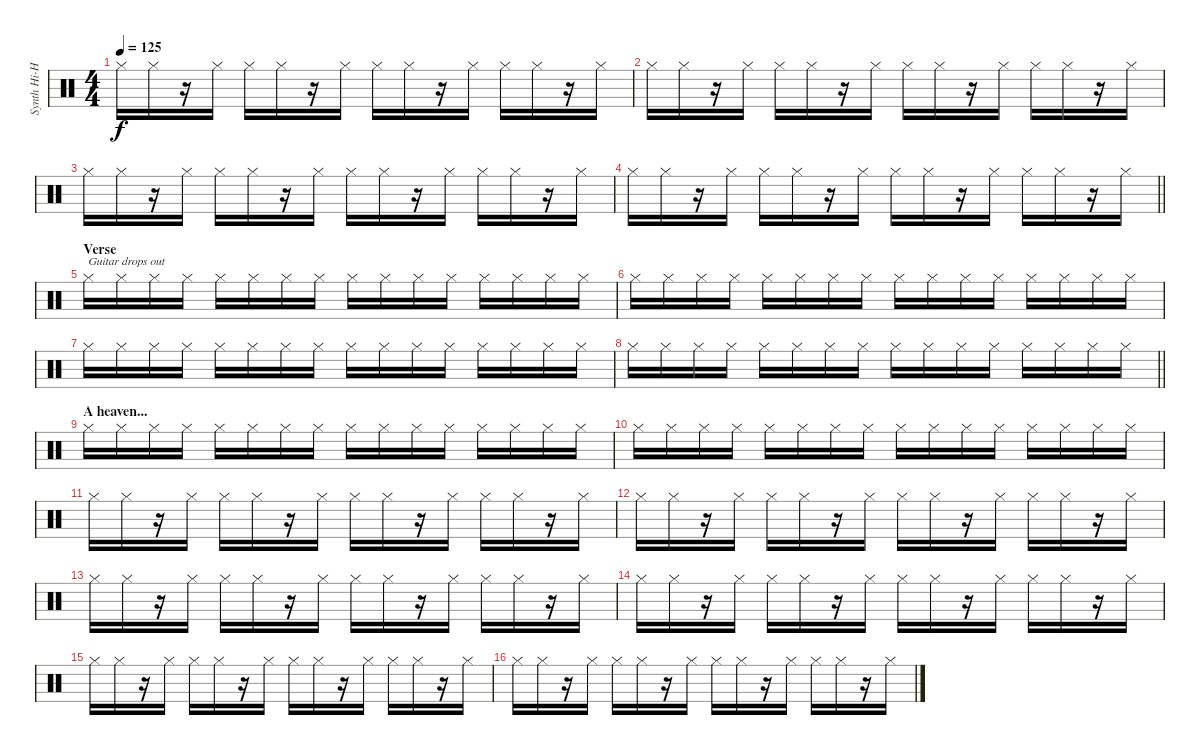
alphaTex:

\track ("Synth Hi-Hat (Gillian)" "Synth Hi-H") {instrument percussion}
\staff {score}
\articulation defaults
\ts (4 4)
\tempo 125
\clef neutral
\ks c "Hi-Hat (closed)".16{dy f} "Hi-Hat (closed)".16
r.16 "Hi-Hat (closed)".16 "Hi-Hat (closed)".16 "Hi-Hat (closed)".16 r.16 "Hi-Hat (closed)".16 "Hi-Hat (closed)".16 "Hi-Hat (closed)".16 r.16 "Hi-Hat (closed)".16 "Hi-Hat (closed)".16 "Hi-Hat (closed)".16 r.16 "Hi-Hat (closed)".16 |
"Hi-Hat (closed)".16 "Hi-Hat (closed)".16 r.16 "Hi-Hat (closed)".16 "Hi-Hat (closed)".16 "Hi-Hat (closed)".16 r.16 "Hi-Hat (closed)".16 "Hi-Hat (closed)".16 "Hi-Hat (closed)".16 r.16 "Hi-Hat (closed)".16 "Hi-Hat (closed)".16 "Hi-Hat (closed)".16 r.16 "Hi-Hat (closed)".16 |
"Hi-Hat (closed)".16 "Hi-Hat (closed)".16 r.16 "Hi-Hat (closed)".16 "Hi-Hat (closed)".16 "Hi-Hat (closed)".16 r.16 "Hi-Hat (closed)".16 "Hi-Hat (closed)".16 "Hi-Hat (closed)".16 r.16 "Hi-Hat (closed)".16 "Hi-Hat (closed)".16 "Hi-Hat (closed)".16 r.16 "Hi-Hat (closed)".16 |
\barLineRight lightlight "Hi-Hat (closed)".16 "Hi-Hat (closed)".16
r.16 "Hi-Hat (closed)".16 "Hi-Hat (closed)".16 "Hi-Hat (closed)".16 r.16 "Hi-Hat (closed)".16 "Hi-Hat (closed)".16 "Hi-Hat (closed)".16 r.16 "Hi-Hat (closed)".16 "Hi-Hat (closed)".16 "Hi-Hat (closed)".16 r.16 "Hi-Hat (closed)".16 |
\section ("" "Verse")
"Hi-Hat (closed)".16{txt "Guitar drops out"} "Hi-Hat (closed)".16 "Hi-Hat (closed)".16 "Hi-Hat (closed)".16 "Hi-Hat (closed)".16 "Hi-Hat (closed)".16 "Hi-Hat (closed)".16 "Hi-Hat (closed)".16 "Hi-Hat (closed)".16 "Hi-Hat (closed)".16 "Hi-Hat (closed)".16 "Hi-Hat (closed)".16 "Hi-Hat (closed)".16 "Hi-Hat (closed)".16 "Hi-Hat (closed)".16 "Hi-Hat (closed)".16 |
"Hi-Hat (closed)".16 "Hi-Hat (closed)".16 "Hi-Hat (closed)".16 "Hi-Hat (closed)".16 "Hi-Hat (closed)".16 "Hi-Hat (closed)".16 "Hi-Hat (closed)".16 "Hi-Hat (closed)".16 "Hi-Hat (closed)".16 "Hi-Hat (closed)".16 "Hi-Hat (closed)".16 "Hi-Hat (closed)".16 "Hi-Hat (closed)".16 "Hi-Hat (closed)".16 "Hi-Hat (closed)".16 "Hi-Hat (closed)".16 |
"Hi-Hat (closed)".16 "Hi-Hat (closed)".16 "Hi-Hat (closed)".16 "Hi-Hat (closed)".16 "Hi-Hat (closed)".16 "Hi-Hat (closed)".16 "Hi-Hat (closed)".16 "Hi-Hat (closed)".16 "Hi-Hat (closed)".16 "Hi-Hat (closed)".16 "Hi-Hat (closed)".16 "Hi-Hat (closed)".16 "Hi-Hat (closed)".16 "Hi-Hat (closed)".16 "Hi-Hat (closed)".16 "Hi-Hat (closed)".16 |
\barLineRight lightlight "Hi-Hat (closed)".16 "Hi-Hat (closed)".16 "Hi-Hat (closed)".16 "Hi-Hat (closed)".16 "Hi-Hat (closed)".16 "Hi-Hat (closed)".16 "Hi-Hat (closed)".16 "Hi-Hat (closed)".16 "Hi-Hat (closed)".16 "Hi-Hat (closed)".16 "Hi-Hat (closed)".16 "Hi-Hat (closed)".16 "Hi-Hat (closed)".16 "Hi-Hat (closed)".16 "Hi-Hat (closed)".16 "Hi-Hat (closed)".16
|
\section ("" "A heaven...")
"Hi-Hat (closed)".16 "Hi-Hat (closed)".16 "Hi-Hat (closed)".16 "Hi-Hat (closed)".16 "Hi-Hat (closed)".16 "Hi-Hat (closed)".16 "Hi-Hat (closed)".16 "Hi-Hat (closed)".16 "Hi-Hat (closed)".16 "Hi-Hat (closed)".16 "Hi-Hat (closed)".16 "Hi-Hat (closed)".16 "Hi-Hat (closed)".16 "Hi-Hat (closed)".16 "Hi-Hat (closed)".16 "Hi-Hat (closed)".16 |
"Hi-Hat (closed)".16 "Hi-Hat (closed)".16 "Hi-Hat (closed)".16 "Hi-Hat (closed)".16 "Hi-Hat (closed)".16 "Hi-Hat (closed)".16 "Hi-Hat (closed)".16 "Hi-Hat (closed)".16 "Hi-Hat (closed)".16 "Hi-Hat (closed)".16 "Hi-Hat (closed)".16 "Hi-Hat (closed)".16 "Hi-Hat (closed)".16 "Hi-Hat (closed)".16 "Hi-Hat (closed)".16 "Hi-Hat (closed)".16 |
"Hi-Hat (closed)".16 "Hi-Hat (closed)".16 r.16 "Hi-Hat (closed)".16 "Hi-Hat (closed)".16 "Hi-Hat (closed)".16 r.16 "Hi-Hat (closed)".16 "Hi-Hat (closed)".16 "Hi-Hat (closed)".16 r.16 "Hi-Hat (closed)".16 "Hi-Hat (closed)".16 "Hi-Hat (closed)".16 r.16 "Hi-Hat (closed)".16 |
"Hi-Hat (closed)".16 "Hi-Hat (closed)".16 r.16 "Hi-Hat (closed)".16 "Hi-Hat (closed)".16 "Hi-Hat (closed)".16 r.16 "Hi-Hat (closed)".16 "Hi-Hat (closed)".16 "Hi-Hat (closed)".16 r.16 "Hi-Hat (closed)".16 "Hi-Hat (closed)".16 "Hi-Hat (closed)".16 r.16 "Hi-Hat (closed)".16 |
"Hi-Hat (closed)".16 "Hi-Hat (closed)".16 r.16 "Hi-Hat (closed)".16 "Hi-Hat (closed)".16 "Hi-Hat (closed)".16 r.16 "Hi-Hat (closed)".16 "Hi-Hat (closed)".16 "Hi-Hat (closed)".16 r.16 "Hi-Hat (closed)".16 "Hi-Hat (closed)".16 "Hi-Hat (closed)".16 r.16 "Hi-Hat (closed)".16 |
"Hi-Hat (closed)".16 "Hi-Hat (closed)".16 r.16 "Hi-Hat (closed)".16 "Hi-Hat (closed)".16 "Hi-Hat (closed)".16 r.16 "Hi-Hat (closed)".16 "Hi-Hat (closed)".16 "Hi-Hat (closed)".16 r.16 "Hi-Hat (closed)".16 "Hi-Hat (closed)".16 "Hi-Hat (closed)".16 r.16 "Hi-Hat (closed)".16 |
"Hi-Hat (closed)".16 "Hi-Hat (closed)".16 r.16 "Hi-Hat (closed)".16 "Hi-Hat (closed)".16 "Hi-Hat (closed)".16 r.16 "Hi-Hat (closed)".16 "Hi-Hat (closed)".16 "Hi-Hat (closed)".16 r.16 "Hi-Hat (closed)".16 "Hi-Hat (closed)".16 "Hi-Hat (closed)".16 r.16 "Hi-Hat (closed)".16 |
"Hi-Hat (closed)".16 "Hi-Hat (closed)".16 r.16 "Hi-Hat (closed)".16 "Hi-Hat (closed)".16 "Hi-Hat (closed)".16 r.16 "Hi-Hat (closed)".16 "Hi-Hat (closed)".16 "Hi-Hat (closed)".16 r.16 "Hi-Hat (closed)".16 "Hi-Hat (closed)".16 "Hi-Hat (closed)".16 r.16 "Hi-Hat (closed)".16
